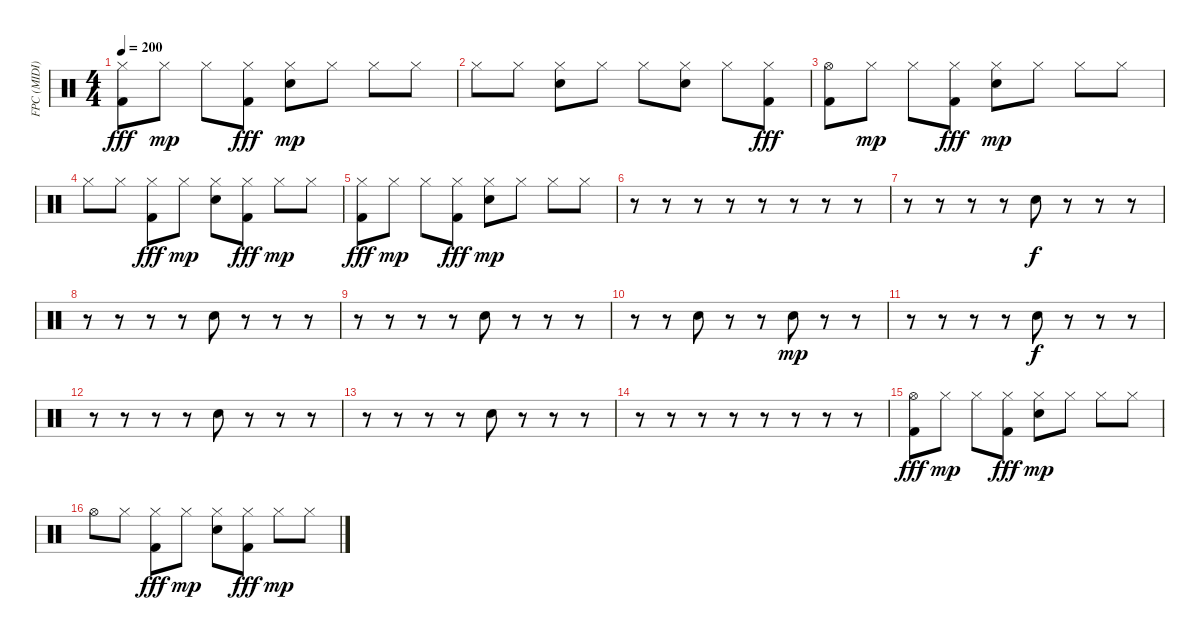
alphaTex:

\track ("FPC (MIDI)" "FPC (MIDI)") {instrument percussion}
\staff {score}
\articulation defaults
\ts (4 4)
\tempo 200
\clef neutral
\ks c
("Hi-Hat (closed)" "Kick (hit) 2").8{dy fff} "Hi-Hat (closed)".8{dy mp} "Hi-Hat (closed)".8 ("Hi-Hat (closed)" "Kick (hit) 2").8{dy fff} ("Hi-Hat (closed)" "Hand Clap (hit)").8{dy mp} "Hi-Hat (closed)".8 "Hi-Hat (closed)".8 "Hi-Hat (closed)".8 |
"Hi-Hat (closed)".8 "Hi-Hat (closed)".8 ("Hi-Hat (closed)" "Hand Clap (hit)").8 "Hi-Hat (closed)".8 "Hi-Hat (closed)".8 ("Hi-Hat (closed)" "Hand Clap (hit)").8 "Hi-Hat (closed)".8 ("Hi-Hat (closed)" "Kick (hit) 2").8{dy fff} |
("Hi-Hat (open)" "Kick (hit) 2").8 "Hi-Hat (closed)".8{dy mp} "Hi-Hat (closed)".8 ("Hi-Hat (closed)" "Kick (hit) 2").8{dy fff} ("Hi-Hat (closed)" "Hand Clap (hit)").8{dy mp} "Hi-Hat (closed)".8 "Hi-Hat (closed)".8 "Hi-Hat (closed)".8 |
"Hi-Hat (closed)".8 "Hi-Hat (closed)".8 ("Hi-Hat (closed)" "Kick (hit) 2").8{dy fff} "Hi-Hat (closed)".8{dy mp} ("Hi-Hat (closed)" "Hand Clap (hit)").8 ("Hi-Hat (closed)" "Kick (hit) 2").8{dy fff} "Hi-Hat (closed)".8{dy mp} "Hi-Hat (closed)".8 |
("Hi-Hat (closed)" "Kick (hit) 2").8{dy fff} "Hi-Hat (closed)".8{dy mp} "Hi-Hat (closed)".8 ("Hi-Hat (closed)" "Kick (hit) 2").8{dy fff} ("Hi-Hat (closed)" "Hand Clap (hit)").8{dy mp} "Hi-Hat (closed)".8 "Hi-Hat (closed)".8 "Hi-Hat (closed)".8 |
r.8 r.8 r.8 r.8 r.8 r.8 r.8 r.8 |
r.8 r.8 r.8 r.8 "Hand Clap (hit)".8{dy f} r.8 r.8 r.8 |
r.8 r.8 r.8 r.8 "Hand Clap (hit)".8 r.8 r.8 r.8 |
r.8 r.8 r.8 r.8 "Hand Clap (hit)".8 r.8 r.8 r.8 |
r.8 r.8 "Hand Clap (hit)".8 r.8 r.8 "Hand Clap (hit)".8{dy mp} r.8 r.8 |
r.8 r.8 r.8 r.8 "Hand Clap (hit)".8{dy f} r.8 r.8 r.8 |
r.8 r.8 r.8 r.8 "Hand Clap (hit)".8 r.8 r.8 r.8 |
r.8 r.8 r.8 r.8 "Hand Clap (hit)".8 r.8 r.8 r.8 |
r.8 r.8 r.8 r.8 r.8 r.8 r.8 r.8 |
("Hi-Hat (open)" "Kick (hit) 2").8{dy fff} "Hi-Hat (closed)".8{dy mp} "Hi-Hat (closed)".8 ("Hi-Hat (closed)" "Kick (hit) 2").8{dy fff} ("Hi-Hat (closed)" "Electric Snare (hit)").8{dy mp} "Hi-Hat (closed)".8 "Hi-Hat (closed)".8 "Hi-Hat (closed)".8 |
"Hi-Hat (open)".8 "Hi-Hat (closed)".8 ("Hi-Hat (closed)" "Kick (hit) 2").8{dy fff} "Hi-Hat (closed)".8{dy mp} ("Hi-Hat (closed)" "Electric Snare (hit)").8 ("Hi-Hat (closed)" "Kick (hit) 2").8{dy fff} "Hi-Hat (closed)".8{dy mp} "Hi-Hat (closed)".8
